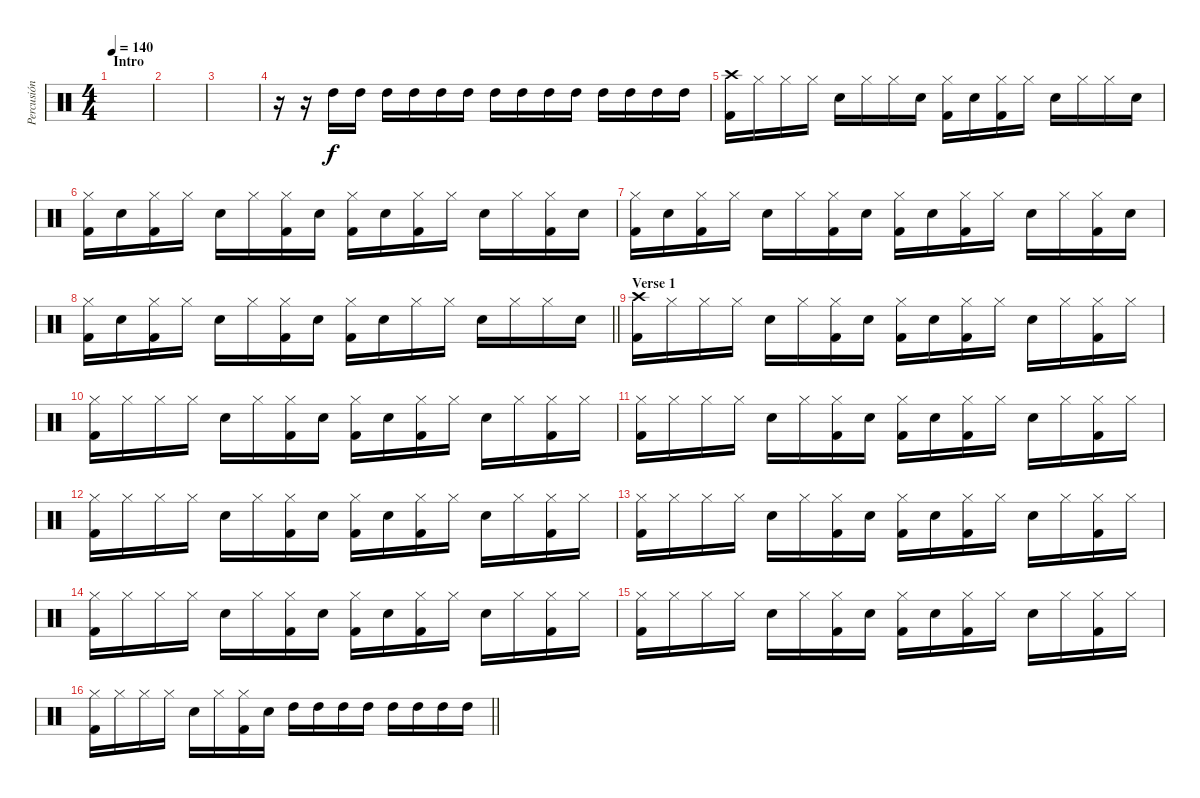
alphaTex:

\track ("Percusión" "Percusión") {instrument percussion}
\staff {score}
\articulation defaults
\ts (4 4)
\section ("" "Intro")
\tempo 140
\clef neutral
\ks c
|
|
|
r.16 r.16 "High Tom (hit)".16 "High Tom (hit)".16 "High Tom (hit)".16 "High Tom (hit)".16 "High Tom (hit)".16 "High Tom (hit)".16 "High Tom (hit)".16 "High Tom (hit)".16 "High Tom (hit)".16 "High Tom (hit)".16 "High Tom (hit)".16 "High Tom (hit)".16 "High Tom (hit)".16 "High Tom (hit)".16 |
("Crash high (hit)" "Kick (hit) 2").16 "Hi-Hat (closed)".16 "Hi-Hat (closed)".16 "Hi-Hat (closed)".16 "Electric Snare (hit)".16 "Hi-Hat (closed)".16 "Hi-Hat (closed)".16 "Electric Snare (hit)".16 ("Hi-Hat (closed)" "Kick (hit) 2").16 "Electric Snare (hit)".16 ("Hi-Hat (closed)" "Kick (hit) 2").16 "Hi-Hat (closed)".16 "Electric Snare (hit)".16 "Hi-Hat (closed)".16 "Hi-Hat (closed)".16 "Electric Snare (hit)".16 |
("Hi-Hat (closed)" "Kick (hit) 2").16 "Electric Snare (hit)".16 ("Hi-Hat (closed)" "Kick (hit) 2").16 "Hi-Hat (closed)".16 "Electric Snare (hit)".16 "Hi-Hat (closed)".16 ("Hi-Hat (closed)" "Kick (hit) 2").16 "Electric Snare (hit)".16 ("Hi-Hat (closed)" "Kick (hit) 2").16 "Electric Snare (hit)".16 ("Hi-Hat (closed)" "Kick (hit) 2").16 "Hi-Hat (closed)".16 "Electric Snare (hit)".16 "Hi-Hat (closed)".16 ("Hi-Hat (closed)" "Kick (hit) 2").16 "Electric Snare (hit)".16 |
("Hi-Hat (closed)" "Kick (hit) 2").16 "Electric Snare (hit)".16 ("Hi-Hat (closed)" "Kick (hit) 2").16 "Hi-Hat (closed)".16 "Electric Snare (hit)".16 "Hi-Hat (closed)".16 ("Hi-Hat (closed)" "Kick (hit) 2").16 "Electric Snare (hit)".16 ("Hi-Hat (closed)" "Kick (hit) 2").16 "Electric Snare (hit)".16 ("Hi-Hat (closed)" "Kick (hit) 2").16 "Hi-Hat (closed)".16 "Electric Snare (hit)".16 "Hi-Hat (closed)".16 ("Hi-Hat (closed)" "Kick (hit) 2").16 "Electric Snare (hit)".16 |
\barLineRight lightlight
("Hi-Hat (closed)" "Kick (hit) 2").16 "Electric Snare (hit)".16 ("Hi-Hat (closed)" "Kick (hit) 2").16 "Hi-Hat (closed)".16 "Electric Snare (hit)".16 "Hi-Hat (closed)".16 ("Hi-Hat (closed)" "Kick (hit) 2").16 "Electric Snare (hit)".16 ("Hi-Hat (closed)" "Kick (hit) 2").16 "Electric Snare (hit)".16 "Hi-Hat (closed)".16 "Hi-Hat (closed)".16 "Electric Snare (hit)".16 "Hi-Hat (closed)".16 "Hi-Hat (closed)".16 "Electric Snare (hit)".16 |
\section ("" "Verse 1")
("Crash high (hit)" "Kick (hit) 2").16 "Hi-Hat (closed)".16 "Hi-Hat (closed)".16 "Hi-Hat (closed)".16 "Electric Snare (hit)".16 "Hi-Hat (closed)".16 ("Hi-Hat (closed)" "Kick (hit) 2").16 "Electric Snare (hit)".16 ("Hi-Hat (closed)" "Kick (hit) 2").16 "Electric Snare (hit)".16 ("Hi-Hat (closed)" "Kick (hit) 2").16 "Hi-Hat (closed)".16 "Electric Snare (hit)".16 "Hi-Hat (closed)".16 ("Hi-Hat (closed)" "Kick (hit) 2").16 "Hi-Hat (closed)".16 |
("Hi-Hat (closed)" "Kick (hit) 2").16 "Hi-Hat (closed)".16 "Hi-Hat (closed)".16 "Hi-Hat (closed)".16 "Electric Snare (hit)".16 "Hi-Hat (closed)".16 ("Hi-Hat (closed)" "Kick (hit) 2").16 "Electric Snare (hit)".16 ("Hi-Hat (closed)" "Kick (hit) 2").16 "Electric Snare (hit)".16 ("Hi-Hat (closed)" "Kick (hit) 2").16 "Hi-Hat (closed)".16 "Electric Snare (hit)".16 "Hi-Hat (closed)".16 ("Hi-Hat (closed)" "Kick (hit) 2").16 "Hi-Hat (closed)".16 |
("Hi-Hat (closed)" "Kick (hit) 2").16 "Hi-Hat (closed)".16 "Hi-Hat (closed)".16 "Hi-Hat (closed)".16 "Electric Snare (hit)".16 "Hi-Hat (closed)".16 ("Hi-Hat (closed)" "Kick (hit) 2").16 "Electric Snare (hit)".16 ("Hi-Hat (closed)" "Kick (hit) 2").16 "Electric Snare (hit)".16 ("Hi-Hat (closed)" "Kick (hit) 2").16 "Hi-Hat (closed)".16 "Electric Snare (hit)".16 "Hi-Hat (closed)".16 ("Hi-Hat (closed)" "Kick (hit) 2").16 "Hi-Hat (closed)".16 |
("Hi-Hat (closed)" "Kick (hit) 2").16 "Hi-Hat (closed)".16 "Hi-Hat (closed)".16 "Hi-Hat (closed)".16 "Electric Snare (hit)".16 "Hi-Hat (closed)".16 ("Hi-Hat (closed)" "Kick (hit) 2").16 "Electric Snare (hit)".16 ("Hi-Hat (closed)" "Kick (hit) 2").16 "Electric Snare (hit)".16 ("Hi-Hat (closed)" "Kick (hit) 2").16 "Hi-Hat (closed)".16 "Electric Snare (hit)".16 "Hi-Hat (closed)".16 ("Hi-Hat (closed)" "Kick (hit) 2").16 "Hi-Hat (closed)".16 |
("Hi-Hat (closed)" "Kick (hit) 2").16 "Hi-Hat (closed)".16 "Hi-Hat (closed)".16 "Hi-Hat (closed)".16 "Electric Snare (hit)".16 "Hi-Hat (closed)".16 ("Hi-Hat (closed)" "Kick (hit) 2").16 "Electric Snare (hit)".16 ("Hi-Hat (closed)" "Kick (hit) 2").16 "Electric Snare (hit)".16 ("Hi-Hat (closed)" "Kick (hit) 2").16 "Hi-Hat (closed)".16 "Electric Snare (hit)".16 "Hi-Hat (closed)".16 ("Hi-Hat (closed)" "Kick (hit) 2").16 "Hi-Hat (closed)".16 |
("Hi-Hat (closed)" "Kick (hit) 2").16 "Hi-Hat (closed)".16 "Hi-Hat (closed)".16 "Hi-Hat (closed)".16 "Electric Snare (hit)".16 "Hi-Hat (closed)".16 ("Hi-Hat (closed)" "Kick (hit) 2").16 "Electric Snare (hit)".16 ("Hi-Hat (closed)" "Kick (hit) 2").16 "Electric Snare (hit)".16 ("Hi-Hat (closed)" "Kick (hit) 2").16 "Hi-Hat (closed)".16 "Electric Snare (hit)".16 "Hi-Hat (closed)".16 ("Hi-Hat (closed)" "Kick (hit) 2").16 "Hi-Hat (closed)".16 |
("Hi-Hat (closed)" "Kick (hit) 2").16 "Hi-Hat (closed)".16 "Hi-Hat (closed)".16 "Hi-Hat (closed)".16 "Electric Snare (hit)".16 "Hi-Hat (closed)".16 ("Hi-Hat (closed)" "Kick (hit) 2").16 "Electric Snare (hit)".16 ("Hi-Hat (closed)" "Kick (hit) 2").16 "Electric Snare (hit)".16 ("Hi-Hat (closed)" "Kick (hit) 2").16 "Hi-Hat (closed)".16 "Electric Snare (hit)".16 "Hi-Hat (closed)".16 ("Hi-Hat (closed)" "Kick (hit) 2").16 "Hi-Hat (closed)".16 |
\barLineRight lightlight
("Hi-Hat (closed)" "Kick (hit) 2").16 "Hi-Hat (closed)".16 "Hi-Hat (closed)".16 "Hi-Hat (closed)".16 "Electric Snare (hit)".16 "Hi-Hat (closed)".16 ("Hi-Hat (closed)" "Kick (hit) 2").16 "Electric Snare (hit)".16 "High Tom (hit)".16 "High Tom (hit)".16 "High Tom (hit)".16 "High Tom (hit)".16 "High Tom (hit)".16 "High Tom (hit)".16 "High Tom (hit)".16 "High Tom (hit)".16
